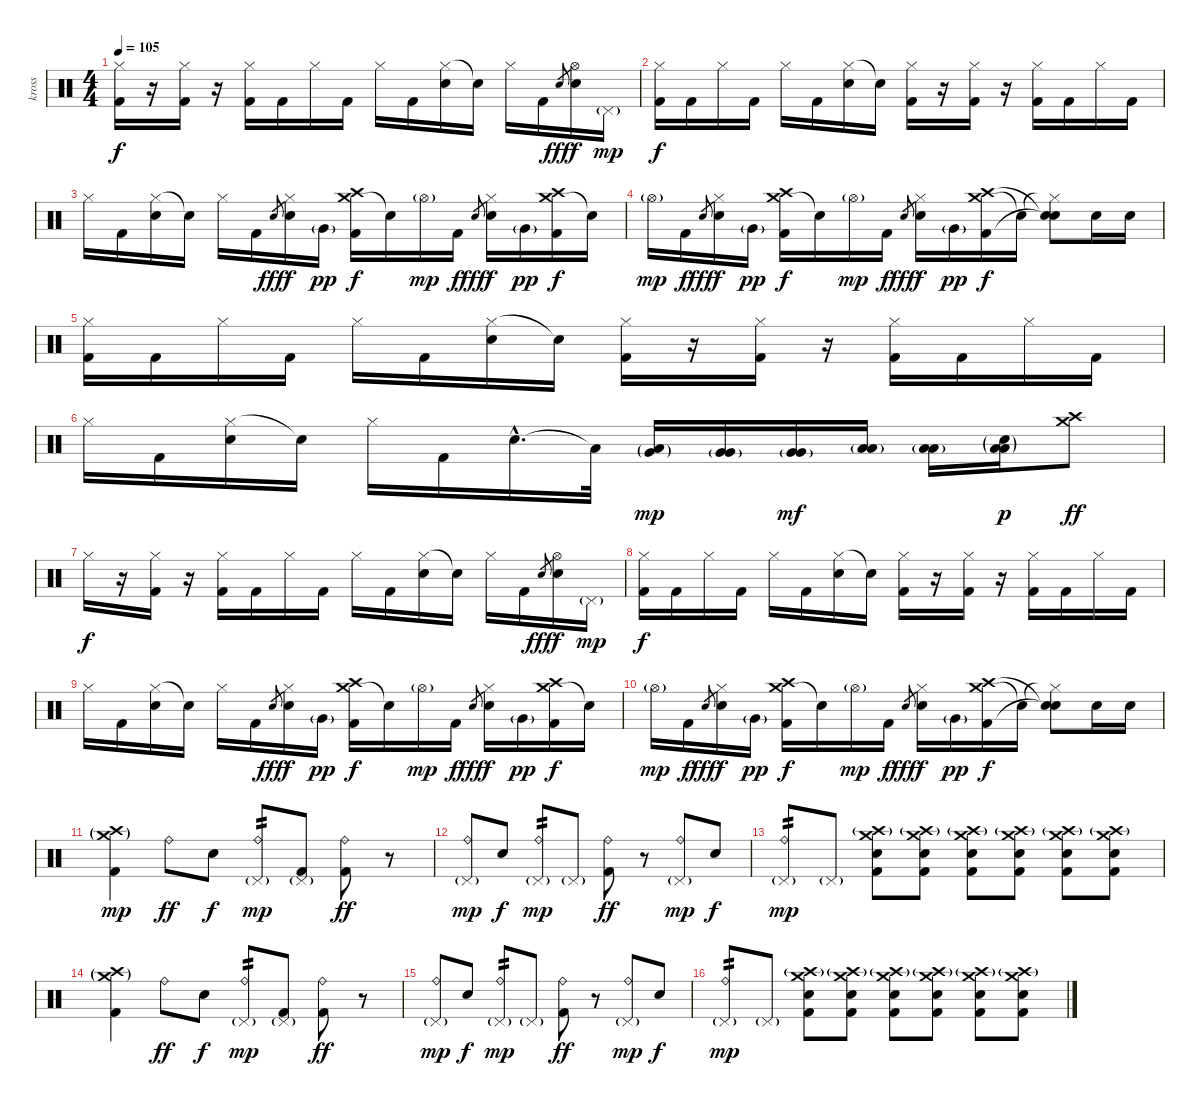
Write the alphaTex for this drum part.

\track ("kross" "kross") {instrument percussion}
\staff {score}
\articulation defaults
\ts (4 4)
\tempo 105
\clef neutral
\ks c
("Hi-Hat (closed)" "Kick (hit) 2").16{dy f} r.16 ("Hi-Hat (closed)" "Kick (hit) 2").16 r.16 ("Hi-Hat (closed)" "Kick (hit) 2").16 "Kick (hit) 2".16 "Hi-Hat (closed)".16 "Kick (hit) 2".16 "Hi-Hat (closed)".16 "Kick (hit) 2".16 ("Hi-Hat (closed)" "Electric Snare (hit)").16 "Snare (hit)"{t}.16 "Hi-Hat (closed)".16 "Kick (hit) 2".16 "Electric Snare (hit)".8{gr dy fff} ("Hi-Hat (open)" "Electric Snare (hit)").16{dy f} "Pedal Hi-Hat (hit)"{g}.16{dy mp} |
("Hi-Hat (closed)" "Kick (hit) 2").16{dy f} "Kick (hit) 2".16 "Hi-Hat (closed)".16 "Kick (hit) 2".16 "Hi-Hat (closed)".16 "Kick (hit) 2".16 ("Hi-Hat (closed)" "Electric Snare (hit)").16 "Snare (hit)"{t}.16 ("Hi-Hat (closed)" "Kick (hit) 2").16 r.16 ("Hi-Hat (closed)" "Kick (hit) 2").16 r.16 ("Hi-Hat (closed)" "Kick (hit) 2").16 "Kick (hit) 2".16 "Hi-Hat (closed)".16 "Kick (hit) 2".16 |
"Hi-Hat (closed)".16 "Kick (hit) 2".16 ("Hi-Hat (closed)" "Electric Snare (hit)").16 "Snare (hit)"{t}.16 "Hi-Hat (closed)".16 "Kick (hit) 2".16 "Electric Snare (hit)".8{gr dy fff} ("Hi-Hat (closed)" "Electric Snare (hit)").16{dy f} "Very Low Tom (hit)"{g}.16{dy pp} ("Crash medium (hit)" "Crash high (hit)" "Kick (hit) 2").16{dy f} "Snare (hit)"{t}.16 "Hi-Hat (open)"{g}.16{dy mp} "Kick (hit) 2".16{dy f} "Electric Snare (hit)".8{gr dy fff} ("Hi-Hat (closed)" "Electric Snare (hit)").16{dy f} "Very Low Tom (hit)"{g}.16{dy pp} ("Crash medium (hit)" "Crash high (hit)" "Kick (hit) 2").16{dy f} "Snare (hit)"{t}.16 |
"Hi-Hat (open)"{g}.16{dy mp} "Kick (hit) 2".16{dy f} "Electric Snare (hit)".8{gr dy fff} ("Hi-Hat (closed)" "Electric Snare (hit)").16{dy f} "Very Low Tom (hit)"{g}.16{dy pp} ("Crash medium (hit)" "Crash high (hit)" "Kick (hit) 2").16{dy f} "Snare (hit)"{t}.16 "Hi-Hat (open)"{g}.16{dy mp} "Kick (hit) 2".16{dy f} "Electric Snare (hit)".8{gr dy fff} ("Hi-Hat (closed)" "Electric Snare (hit)").16{dy f} "Very Low Tom (hit)"{g}.16{dy pp} ("Crash medium (hit)" "Crash high (hit)" "Kick (hit) 2").16{dy f} "Snare (hit)"{t}.16 ("Hi-Hat (closed)"{t} "Snare (hit)"{t} "Snare (hit)"{t}).8 "Electric Snare (hit)".16 "Electric Snare (hit)".16 |
("Hi-Hat (closed)" "Kick (hit) 2").16 "Kick (hit) 2".16 "Hi-Hat (closed)".16 "Kick (hit) 2".16 "Hi-Hat (closed)".16 "Kick (hit) 2".16 ("Hi-Hat (closed)" "Electric Snare (hit)").16 "Snare (hit)"{t}.16 ("Hi-Hat (closed)" "Kick (hit) 2").16 r.16 ("Hi-Hat (closed)" "Kick (hit) 2").16 r.16 ("Hi-Hat (closed)" "Kick (hit) 2").16 "Kick (hit) 2".16 "Hi-Hat (closed)".16 "Kick (hit) 2".16 |
"Hi-Hat (closed)".16 "Kick (hit) 2".16 ("Hi-Hat (closed)" "Electric Snare (hit)").16 "Snare (hit)"{t}.16 "Hi-Hat (closed)".16 "Kick (hit) 2".16 "Electric Snare (hit)"{hac}.16{d} "Low Tom (hit)"{t}.32 ("Very Low Tom (hit)"{g} "Low Tom (hit)"{g}).16{dy mp} ("Very Low Tom (hit)"{g} "Very Low Tom (hit)"{g}).16 ("Very Low Tom (hit)"{g} "Very Low Tom (hit)"{g}).16{dy mf} ("Low Floor Tom (hit)"{g} "Low Floor Tom (hit)"{g}).16 ("Low Floor Tom (hit)"{g} "Low Floor Tom (hit)"{g}).16 ("Electric Snare (hit)"{g} "Low Floor Tom (hit)"{g} "Low Floor Tom (hit)"{g}).16{dy p} ("Crash medium (hit)" "Crash high (hit)").8{dy ff} |
"Hi-Hat (closed)".16{dy f} r.16 ("Hi-Hat (closed)" "Kick (hit) 2").16 r.16 ("Hi-Hat (closed)" "Kick (hit) 2").16 "Kick (hit) 2".16 "Hi-Hat (closed)".16 "Kick (hit) 2".16 "Hi-Hat (closed)".16 "Kick (hit) 2".16 ("Hi-Hat (closed)" "Electric Snare (hit)").16 "Snare (hit)"{t}.16 "Hi-Hat (closed)".16 "Kick (hit) 2".16 "Electric Snare (hit)".8{gr dy fff} ("Hi-Hat (open)" "Electric Snare (hit)").16{dy f} "Pedal Hi-Hat (hit)"{g}.16{dy mp} |
("Hi-Hat (closed)" "Kick (hit) 2").16{dy f} "Kick (hit) 2".16 "Hi-Hat (closed)".16 "Kick (hit) 2".16 "Hi-Hat (closed)".16 "Kick (hit) 2".16 ("Hi-Hat (closed)" "Electric Snare (hit)").16 "Snare (hit)"{t}.16 ("Hi-Hat (closed)" "Kick (hit) 2").16 r.16 ("Hi-Hat (closed)" "Kick (hit) 2").16 r.16 ("Hi-Hat (closed)" "Kick (hit) 2").16 "Kick (hit) 2".16 "Hi-Hat (closed)".16 "Kick (hit) 2".16 |
"Hi-Hat (closed)".16 "Kick (hit) 2".16 ("Hi-Hat (closed)" "Electric Snare (hit)").16 "Snare (hit)"{t}.16 "Hi-Hat (closed)".16 "Kick (hit) 2".16 "Electric Snare (hit)".8{gr dy fff} ("Hi-Hat (closed)" "Electric Snare (hit)").16{dy f} "Very Low Tom (hit)"{g}.16{dy pp} ("Crash medium (hit)" "Crash high (hit)" "Kick (hit) 2").16{dy f} "Snare (hit)"{t}.16 "Hi-Hat (open)"{g}.16{dy mp} "Kick (hit) 2".16{dy f} "Electric Snare (hit)".8{gr dy fff} ("Hi-Hat (closed)" "Electric Snare (hit)").16{dy f} "Very Low Tom (hit)"{g}.16{dy pp} ("Crash medium (hit)" "Crash high (hit)" "Kick (hit) 2").16{dy f} "Snare (hit)"{t}.16 |
"Hi-Hat (open)"{g}.16{dy mp} "Kick (hit) 2".16{dy f} "Electric Snare (hit)".8{gr dy fff} ("Hi-Hat (closed)" "Electric Snare (hit)").16{dy f} "Very Low Tom (hit)"{g}.16{dy pp} ("Crash medium (hit)" "Crash high (hit)" "Kick (hit) 2").16{dy f} "Snare (hit)"{t}.16 "Hi-Hat (open)"{g}.16{dy mp} "Kick (hit) 2".16{dy f} "Electric Snare (hit)".8{gr dy fff} ("Hi-Hat (closed)" "Electric Snare (hit)").16{dy f} "Very Low Tom (hit)"{g}.16{dy pp} ("Crash medium (hit)" "Crash high (hit)" "Kick (hit) 2").16{dy f} "Snare (hit)"{t}.16 ("Hi-Hat (closed)"{t} "Snare (hit)"{t} "Snare (hit)"{t}).8 "Electric Snare (hit)".16 "Electric Snare (hit)".16 |
("Crash medium (hit)"{g} "Crash high (hit)"{g} "Kick (hit) 2").4{dy mp} "Ride (bell)".8{dy ff} "Electric Snare (hit)".8{dy f} ("Ride (bell)" "Pedal Hi-Hat (hit)"{g}).8{tp 2 dy mp} ("Pedal Hi-Hat (hit)"{g} "Kick (hit) 2").8 ("Ride (bell)" "Kick (hit) 2").8{dy ff} r.8 |
("Ride (bell)" "Pedal Hi-Hat (hit)"{g}).8{dy mp} "Electric Snare (hit)".8{dy f} ("Ride (bell)" "Pedal Hi-Hat (hit)"{g}).8{tp 2 dy mp} "Pedal Hi-Hat (hit)"{g}.8 ("Ride (bell)" "Kick (hit) 2").8{dy ff} r.8 ("Ride (bell)" "Pedal Hi-Hat (hit)"{g}).8{dy mp} "Electric Snare (hit)".8{dy f} |
("Ride (bell)" "Pedal Hi-Hat (hit)"{g}).8{tp 2 dy mp} "Pedal Hi-Hat (hit)"{g}.8 ("Crash medium (hit)" "Crash high (hit)"{g} "Electric Snare (hit)" "Kick (hit) 2").8 ("Crash medium (hit)" "Crash high (hit)"{g} "Electric Snare (hit)" "Kick (hit) 2").8 ("Crash medium (hit)" "Crash high (hit)"{g} "Electric Snare (hit)" "Kick (hit) 2").8 ("Crash medium (hit)" "Crash high (hit)"{g} "Electric Snare (hit)" "Kick (hit) 2").8 ("Crash medium (hit)" "Crash high (hit)"{g} "Electric Snare (hit)" "Kick (hit) 2").8 ("Crash medium (hit)" "Crash high (hit)"{g} "Electric Snare (hit)" "Kick (hit) 2").8 |
("Crash medium (hit)"{g} "Crash high (hit)"{g} "Kick (hit) 2").4 "Ride (bell)".8{dy ff} "Electric Snare (hit)".8{dy f} ("Ride (bell)" "Pedal Hi-Hat (hit)"{g}).8{tp 2 dy mp} ("Pedal Hi-Hat (hit)"{g} "Kick (hit) 2").8 ("Ride (bell)" "Kick (hit) 2").8{dy ff} r.8 |
("Ride (bell)" "Pedal Hi-Hat (hit)"{g}).8{dy mp} "Electric Snare (hit)".8{dy f} ("Ride (bell)" "Pedal Hi-Hat (hit)"{g}).8{tp 2 dy mp} "Pedal Hi-Hat (hit)"{g}.8 ("Ride (bell)" "Kick (hit) 2").8{dy ff} r.8 ("Ride (bell)" "Pedal Hi-Hat (hit)"{g}).8{dy mp} "Electric Snare (hit)".8{dy f} |
("Ride (bell)" "Pedal Hi-Hat (hit)"{g}).8{tp 2 dy mp} "Pedal Hi-Hat (hit)"{g}.8 ("Crash medium (hit)" "Crash high (hit)"{g} "Electric Snare (hit)" "Kick (hit) 2").8 ("Crash medium (hit)" "Crash high (hit)"{g} "Electric Snare (hit)" "Kick (hit) 2").8 ("Crash medium (hit)" "Crash high (hit)"{g} "Electric Snare (hit)" "Kick (hit) 2").8 ("Crash medium (hit)" "Crash high (hit)"{g} "Electric Snare (hit)" "Kick (hit) 2").8 ("Crash medium (hit)" "Crash high (hit)"{g} "Electric Snare (hit)" "Kick (hit) 2").8 ("Crash medium (hit)" "Crash high (hit)"{g} "Electric Snare (hit)" "Kick (hit) 2").8
